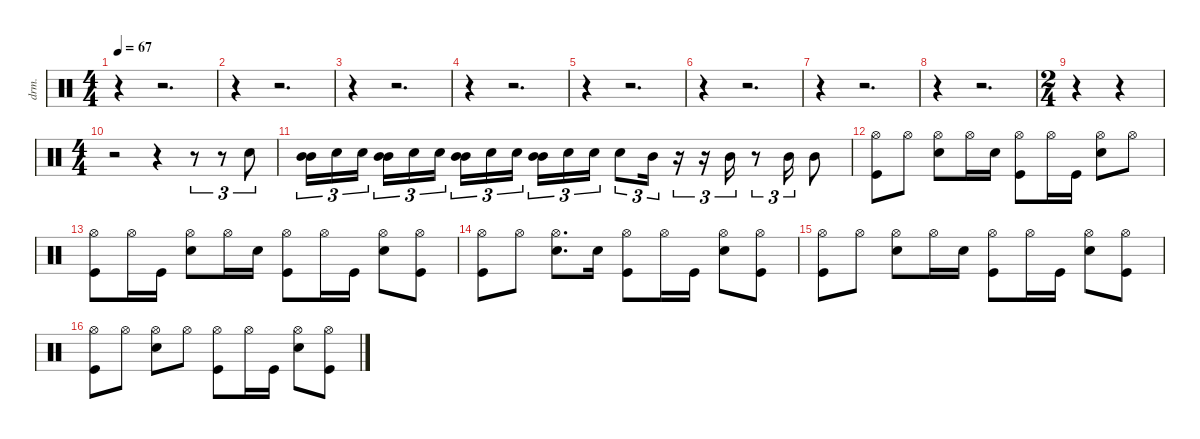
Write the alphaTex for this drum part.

\defaultSystemsLayout 4
\hideDynamics
\bracketExtendMode nobrackets
\otherSystemsTrackNameOrientation horizontal
\track ("Mitch Mitchell" "drm.") {instrument percussion}
\staff {score}
\articulation defaults
\ts (4 4)
\tempo 67
\clef neutral
\ks c
r.4{dy mp} r.2{d} |
r.4 r.2{d} |
r.4 r.2{d} |
r.4 r.2{d} |
r.4 r.2{d} |
r.4 r.2{d} |
r.4 r.2{d} |
r.4 r.2{d} |
\ts (2 4)
r.4 r.4 |
\ts (4 4)
r.2 r.4 r.8{tu (3 2)} r.8{tu (3 2)} "Snare (hit) 2".8{tu (3 2)} |
("Mid Tom (hit)" "Mid Tom (hit)").16{tu (3 2) dy f} "Snare (hit) 2".16{tu (3 2) dy mp} "Snare (hit) 2".16{tu (3 2)} ("Mid Tom (hit)" "Mid Tom (hit)").16{tu (3 2) dy f} "Snare (hit) 2".16{tu (3 2) dy mp} "Snare (hit) 2".16{tu (3 2)} ("Mid Tom (hit)" "Mid Tom (hit)").16{tu (3 2) dy f} "Snare (hit) 2".16{tu (3 2) dy mp} "Snare (hit) 2".16{tu (3 2)} ("Mid Tom (hit)" "Mid Tom (hit)").16{tu (3 2) dy f} "Snare (hit) 2".16{tu (3 2) dy mp} "Snare (hit) 2".16{tu (3 2) dy f} "Snare (hit) 2".8{tu (3 2)} "Mid Tom (hit)".16{tu (3 2) dy ff} r.16{tu (3 2)} r.16{tu (3 2)} "Mid Tom (hit)".16{tu (3 2) dy f} r.8{tu (3 2)} "Mid Tom (hit)".16{tu (3 2)} "Mid Tom (hit)".8 |
("Hi-Hat (open)" "Kick (hit)").8{dy mp} "Hi-Hat (open)".8 ("Hi-Hat (open)" "Snare (hit) 2").8 "Hi-Hat (open)".16 "Snare (hit) 2".16 ("Hi-Hat (open)" "Kick (hit)").8 "Hi-Hat (open)".16 "Kick (hit)".16{dy f} ("Hi-Hat (open)" "Snare (hit) 2").8{dy mp} "Hi-Hat (open)".8 |
("Hi-Hat (open)" "Kick (hit)").8 "Hi-Hat (open)".16 "Kick (hit)".16{dy f} ("Hi-Hat (open)" "Snare (hit) 2").8{dy mp} "Hi-Hat (open)".16 "Snare (hit) 2".16 ("Hi-Hat (open)" "Kick (hit)").8 "Hi-Hat (open)".16 "Kick (hit)".16{dy f} ("Hi-Hat (open)" "Snare (hit) 2").8{dy mp} ("Hi-Hat (open)" "Kick (hit)").8 |
("Hi-Hat (open)" "Kick (hit)").8 "Hi-Hat (open)".8 ("Hi-Hat (open)" "Snare (hit) 2").8{d} "Snare (hit) 2".16 ("Hi-Hat (open)" "Kick (hit)").8 "Hi-Hat (open)".16 "Kick (hit)".16{dy f} ("Hi-Hat (open)" "Snare (hit) 2").8{dy mp} ("Hi-Hat (open)" "Kick (hit)").8 |
("Hi-Hat (open)" "Kick (hit)").8 "Hi-Hat (open)".8 ("Hi-Hat (open)" "Snare (hit) 2").8 "Hi-Hat (open)".16 "Snare (hit) 2".16 ("Hi-Hat (open)" "Kick (hit)").8 "Hi-Hat (open)".16 "Kick (hit)".16{dy f} ("Hi-Hat (open)" "Snare (hit) 2").8{dy mp} ("Hi-Hat (open)" "Kick (hit)").8 |
("Hi-Hat (open)" "Kick (hit)").8 "Hi-Hat (open)".8 ("Hi-Hat (open)" "Snare (hit) 2").8 "Hi-Hat (open)".8 ("Hi-Hat (open)" "Kick (hit)").8 "Hi-Hat (open)".16 "Kick (hit)".16{dy f} ("Hi-Hat (open)" "Snare (hit) 2").8{dy mp} ("Hi-Hat (open)" "Kick (hit)").8
